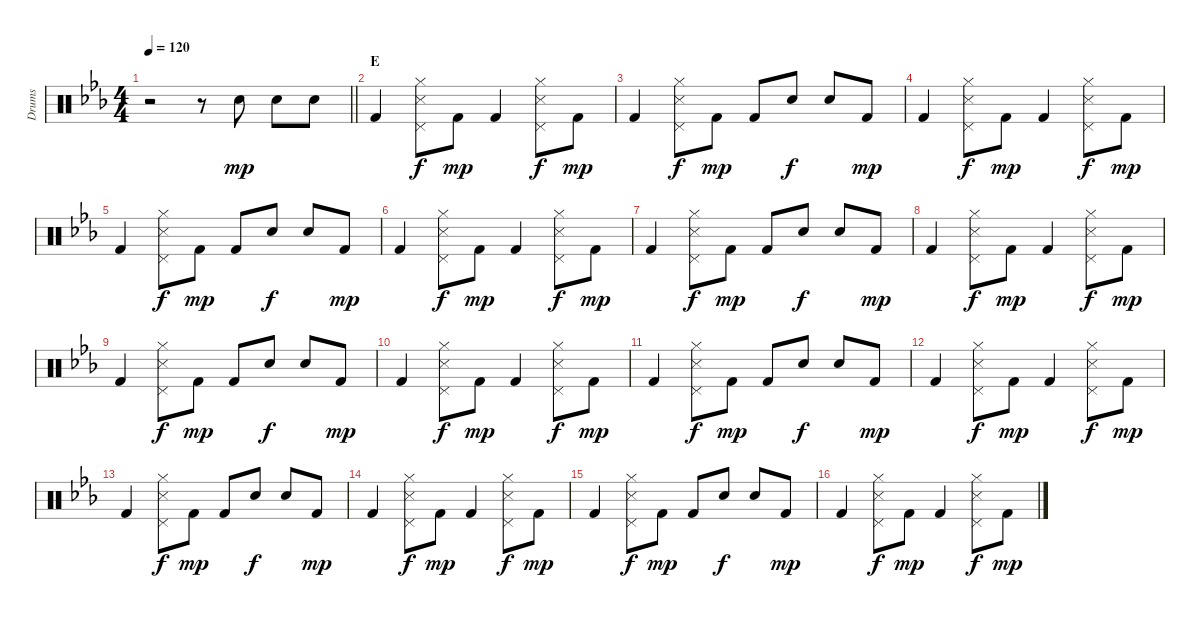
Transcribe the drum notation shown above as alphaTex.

\track ("Drums" "Drums") {instrument percussion}
\staff {score}
\articulation defaults
\ts (4 4)
\tempo 120
\clef neutral
\barLineRight lightlight
\ks eb
r.2{dy f} r.8 "Electric Snare (hit)".8{dy mp} "Electric Snare (hit)".8 "Electric Snare (hit)".8 |
\section ("" "E")
"Kick (hit) 2".4 ("Hi-Hat (closed)" "Metronome (hit)" "Pedal Hi-Hat (hit)").8{dy f} "Kick (hit) 2".8{dy mp} "Kick (hit) 2".4 ("Hi-Hat (closed)" "Metronome (hit)" "Pedal Hi-Hat (hit)").8{dy f} "Kick (hit) 2".8{dy mp} |
"Kick (hit) 2".4 ("Hi-Hat (closed)" "Metronome (hit)" "Pedal Hi-Hat (hit)").8{dy f} "Kick (hit) 2".8{dy mp} "Kick (hit) 2".8 "Electric Snare (hit)".8{dy f} "Electric Snare (hit)".8 "Kick (hit) 2".8{dy mp} |
"Kick (hit) 2".4 ("Hi-Hat (closed)" "Metronome (hit)" "Pedal Hi-Hat (hit)").8{dy f} "Kick (hit) 2".8{dy mp} "Kick (hit) 2".4 ("Hi-Hat (closed)" "Metronome (hit)" "Pedal Hi-Hat (hit)").8{dy f} "Kick (hit) 2".8{dy mp} |
"Kick (hit) 2".4 ("Hi-Hat (closed)" "Metronome (hit)" "Pedal Hi-Hat (hit)").8{dy f} "Kick (hit) 2".8{dy mp} "Kick (hit) 2".8 "Electric Snare (hit)".8{dy f} "Electric Snare (hit)".8 "Kick (hit) 2".8{dy mp} |
"Kick (hit) 2".4 ("Hi-Hat (closed)" "Metronome (hit)" "Pedal Hi-Hat (hit)").8{dy f} "Kick (hit) 2".8{dy mp} "Kick (hit) 2".4 ("Hi-Hat (closed)" "Metronome (hit)" "Pedal Hi-Hat (hit)").8{dy f} "Kick (hit) 2".8{dy mp} |
"Kick (hit) 2".4 ("Hi-Hat (closed)" "Metronome (hit)" "Pedal Hi-Hat (hit)").8{dy f} "Kick (hit) 2".8{dy mp} "Kick (hit) 2".8 "Electric Snare (hit)".8{dy f} "Electric Snare (hit)".8 "Kick (hit) 2".8{dy mp} |
"Kick (hit) 2".4 ("Hi-Hat (closed)" "Metronome (hit)" "Pedal Hi-Hat (hit)").8{dy f} "Kick (hit) 2".8{dy mp} "Kick (hit) 2".4 ("Hi-Hat (closed)" "Metronome (hit)" "Pedal Hi-Hat (hit)").8{dy f} "Kick (hit) 2".8{dy mp} |
"Kick (hit) 2".4 ("Hi-Hat (closed)" "Metronome (hit)" "Pedal Hi-Hat (hit)").8{dy f} "Kick (hit) 2".8{dy mp} "Kick (hit) 2".8 "Electric Snare (hit)".8{dy f} "Electric Snare (hit)".8 "Kick (hit) 2".8{dy mp} |
"Kick (hit) 2".4 ("Hi-Hat (closed)" "Metronome (hit)" "Pedal Hi-Hat (hit)").8{dy f} "Kick (hit) 2".8{dy mp} "Kick (hit) 2".4 ("Hi-Hat (closed)" "Metronome (hit)" "Pedal Hi-Hat (hit)").8{dy f} "Kick (hit) 2".8{dy mp} |
"Kick (hit) 2".4 ("Hi-Hat (closed)" "Metronome (hit)" "Pedal Hi-Hat (hit)").8{dy f} "Kick (hit) 2".8{dy mp} "Kick (hit) 2".8 "Electric Snare (hit)".8{dy f} "Electric Snare (hit)".8 "Kick (hit) 2".8{dy mp} |
"Kick (hit) 2".4 ("Hi-Hat (closed)" "Metronome (hit)" "Pedal Hi-Hat (hit)").8{dy f} "Kick (hit) 2".8{dy mp} "Kick (hit) 2".4 ("Hi-Hat (closed)" "Metronome (hit)" "Pedal Hi-Hat (hit)").8{dy f} "Kick (hit) 2".8{dy mp} |
"Kick (hit) 2".4 ("Hi-Hat (closed)" "Metronome (hit)" "Pedal Hi-Hat (hit)").8{dy f} "Kick (hit) 2".8{dy mp} "Kick (hit) 2".8 "Electric Snare (hit)".8{dy f} "Electric Snare (hit)".8 "Kick (hit) 2".8{dy mp} |
"Kick (hit) 2".4 ("Hi-Hat (closed)" "Metronome (hit)" "Pedal Hi-Hat (hit)").8{dy f} "Kick (hit) 2".8{dy mp} "Kick (hit) 2".4 ("Hi-Hat (closed)" "Metronome (hit)" "Pedal Hi-Hat (hit)").8{dy f} "Kick (hit) 2".8{dy mp} |
"Kick (hit) 2".4 ("Hi-Hat (closed)" "Metronome (hit)" "Pedal Hi-Hat (hit)").8{dy f} "Kick (hit) 2".8{dy mp} "Kick (hit) 2".8 "Electric Snare (hit)".8{dy f} "Electric Snare (hit)".8 "Kick (hit) 2".8{dy mp} |
"Kick (hit) 2".4 ("Hi-Hat (closed)" "Metronome (hit)" "Pedal Hi-Hat (hit)").8{dy f} "Kick (hit) 2".8{dy mp} "Kick (hit) 2".4 ("Hi-Hat (closed)" "Metronome (hit)" "Pedal Hi-Hat (hit)").8{dy f} "Kick (hit) 2".8{dy mp}
